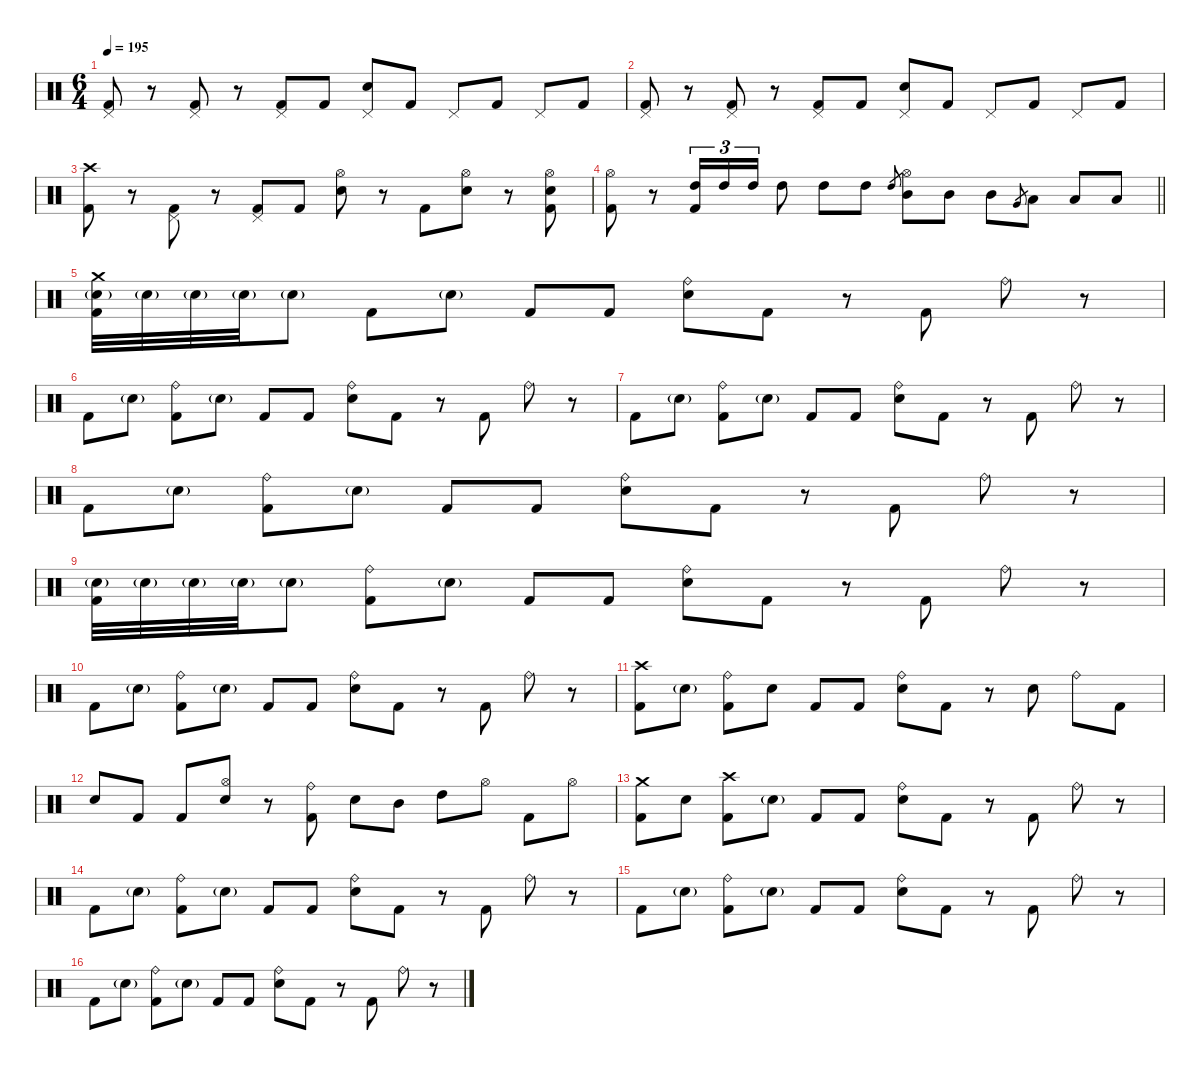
\defaultSystemsLayout 4
\hideDynamics
\bracketExtendMode nobrackets
\singleTrackTrackNamePolicy hidden
\multiTrackTrackNamePolicy hidden
\firstSystemTrackNameMode fullname
\firstSystemTrackNameOrientation horizontal
\otherSystemsTrackNameOrientation horizontal
\track ("Drums" "drm.") {instrument percussion}
\staff {score}
\articulation defaults
\ts (6 4)
\tempo 195
\clef neutral
\ks c
("Pedal Hi-Hat (hit)" "Kick (hit) 2").8{dy mf beam Up} r.8{beam Up} ("Pedal Hi-Hat (hit)" "Kick (hit) 2").8{beam Up} r.8{beam Up} ("Pedal Hi-Hat (hit)" "Kick (hit) 2").8{beam Up} "Kick (hit) 2".8{beam Up} ("Pedal Hi-Hat (hit)" "Snare (hit) 2").8{beam Up} "Kick (hit) 2".8{beam Up} "Pedal Hi-Hat (hit)".8{beam Up} "Kick (hit) 2".8{beam Up} "Pedal Hi-Hat (hit)".8{beam Up} "Kick (hit) 2".8{beam Up} |
("Pedal Hi-Hat (hit)" "Kick (hit) 2").8{beam Up} r.8{beam Up} ("Pedal Hi-Hat (hit)" "Kick (hit) 2").8{beam Up} r.8{beam Up} ("Pedal Hi-Hat (hit)" "Kick (hit) 2").8{beam Up} "Kick (hit) 2".8{beam Up} ("Pedal Hi-Hat (hit)" "Snare (hit) 2").8{beam Up} "Kick (hit) 2".8{beam Up} "Pedal Hi-Hat (hit)".8{beam Up} "Kick (hit) 2".8{beam Up} "Pedal Hi-Hat (hit)".8{beam Up} "Kick (hit) 2".8{beam Up} |
("Crash high (hit)" "Kick (hit) 2").8{beam Down} r.8{beam Down} ("Pedal Hi-Hat (hit)" "Kick (hit) 2").8{beam Down} r.8{beam Down} ("Pedal Hi-Hat (hit)" "Kick (hit) 2").8{beam Up} "Kick (hit) 2".8{beam Up} ("Hi-Hat (open)" "Snare (hit) 2").8{beam Down} r.8{beam Down} "Kick (hit) 2".8{beam Down} ("Hi-Hat (open)" "Snare (hit) 2").8{beam Down} r.8{beam Down} ("Hi-Hat (open)" "Snare (hit) 2" "Kick (hit) 2").8{beam Down} |
\barLineRight lightlight
("Hi-Hat (open)" "Kick (hit) 2").8{beam Down} r.8{beam Down} ("High Tom (hit)" "Kick (hit) 2").16{tu (3 2) beam Up} "High Tom (hit)".16{tu (3 2) beam Up} "High Tom (hit)".16{tu (3 2) beam Up} "High Tom (hit)".8{beam Down} "High Tom (hit)".8{beam Down} "High Tom (hit)".8{beam Down} "High Tom (hit)".8{gr beam Up} ("Hi-Hat (open)" "Mid Tom (hit)").8{beam Down} "Mid Tom (hit)".8{beam Down} "Mid Tom (hit)".8{beam Down} "Very Low Tom (hit)".8{gr beam Up} "Low Tom (hit)".8{beam Up} "Low Tom (hit)".8{beam Up} "Low Tom (hit)".8{beam Up} |
("Crash medium (hit)" "Snare (hit) 2"{g} "Kick (hit) 2").32{beam Down} "Snare (hit) 2"{g}.32{beam Down} "Snare (hit) 2"{g}.32{beam Down} "Snare (hit) 2"{g}.32{beam Down} "Snare (hit) 2"{g}.8{beam Down} "Kick (hit) 2".8{beam Down} "Snare (hit) 2"{g}.8{beam Up} "Kick (hit) 2".8{beam Up} "Kick (hit) 2".8{beam Up} ("Ride (bell)" "Snare (hit) 2").8{beam Down} "Kick (hit) 2".8{beam Down} r.8{beam Down} "Kick (hit) 2".8{beam Down} "Ride (bell)".8{beam Down} r.8{beam Down} |
"Kick (hit) 2".8{beam Down} "Snare (hit) 2"{g}.8{beam Down} ("Ride (bell)" "Kick (hit) 2").8{beam Down} "Snare (hit) 2"{g}.8{beam Up} "Kick (hit) 2".8{beam Up} "Kick (hit) 2".8{beam Up} ("Ride (bell)" "Snare (hit) 2").8{beam Down} "Kick (hit) 2".8{beam Down} r.8{beam Down} "Kick (hit) 2".8{beam Down} "Ride (bell)".8{beam Down} r.8{beam Down} |
"Kick (hit) 2".8{beam Down} "Snare (hit) 2"{g}.8{beam Down} ("Ride (bell)" "Kick (hit) 2").8{beam Down} "Snare (hit) 2"{g}.8{beam Up} "Kick (hit) 2".8{beam Up} "Kick (hit) 2".8{beam Up} ("Ride (bell)" "Snare (hit) 2").8{beam Down} "Kick (hit) 2".8{beam Down} r.8{beam Down} "Kick (hit) 2".8{beam Down} "Ride (bell)".8{beam Down} r.8{beam Down} |
"Kick (hit) 2".8{beam Down} "Snare (hit) 2"{g}.8{beam Down} ("Ride (bell)" "Kick (hit) 2").8{beam Down} "Snare (hit) 2"{g}.8{beam Up} "Kick (hit) 2".8{beam Up} "Kick (hit) 2".8{beam Up} ("Ride (bell)" "Snare (hit) 2").8{beam Down} "Kick (hit) 2".8{beam Down} r.8{beam Down} "Kick (hit) 2".8{beam Down} "Ride (bell)".8{beam Down} r.8{beam Down} |
("Snare (hit) 2"{g} "Kick (hit) 2").32{beam Down} "Snare (hit) 2"{g}.32{beam Down} "Snare (hit) 2"{g}.32{beam Down} "Snare (hit) 2"{g}.32{beam Down} "Snare (hit) 2"{g}.8{beam Down} ("Ride (bell)" "Kick (hit) 2").8{beam Down} "Snare (hit) 2"{g}.8{beam Up} "Kick (hit) 2".8{beam Up} "Kick (hit) 2".8{beam Up} ("Ride (bell)" "Snare (hit) 2").8{beam Down} "Kick (hit) 2".8{beam Down} r.8{beam Down} "Kick (hit) 2".8{beam Down} "Ride (bell)".8{beam Down} r.8{beam Down} |
"Kick (hit) 2".8{beam Down} "Snare (hit) 2"{g}.8{beam Down} ("Ride (bell)" "Kick (hit) 2").8{beam Down} "Snare (hit) 2"{g}.8{beam Up} "Kick (hit) 2".8{beam Up} "Kick (hit) 2".8{beam Up} ("Ride (bell)" "Snare (hit) 2").8{beam Down} "Kick (hit) 2".8{beam Down} r.8{beam Down} "Kick (hit) 2".8{beam Down} "Ride (bell)".8{beam Down} r.8{beam Down} |
("Crash high (hit)" "Kick (hit) 2").8{beam Down} "Snare (hit) 2"{g}.8{beam Down} ("Ride (bell)" "Kick (hit) 2").8{beam Down} "Snare (hit) 2".8{beam Up} "Kick (hit) 2".8{beam Up} "Kick (hit) 2".8{beam Up} ("Ride (bell)" "Snare (hit) 2").8{beam Down} "Kick (hit) 2".8{beam Down} r.8{beam Down} "Snare (hit) 2".8{beam Down} "Ride (bell)".8{beam Down} "Kick (hit) 2".8{beam Down} |
"Snare (hit) 2".8{beam Up} "Kick (hit) 2".8{beam Up} "Kick (hit) 2".8{beam Up} ("Hi-Hat (open)" "Snare (hit) 2").8{beam Down} r.8{beam Down} ("Ride (bell)" "Kick (hit) 2").8{beam Down} "Snare (hit) 2".8{beam Down} "Mid Tom (hit)".8{beam Down} "High Tom (hit)".8{beam Down} "Hi-Hat (open)".8{beam Down} "Kick (hit) 2".8{beam Down} "Hi-Hat (open)".8{beam Down} |
("Crash medium (hit)" "Kick (hit) 2").8{beam Down} "Snare (hit) 2".8{beam Down} ("Crash high (hit)" "Kick (hit) 2").8{beam Down} "Snare (hit) 2"{g}.8{beam Up} "Kick (hit) 2".8{beam Up} "Kick (hit) 2".8{beam Up} ("Ride (bell)" "Snare (hit) 2").8{beam Down} "Kick (hit) 2".8{beam Down} r.8{beam Down} "Kick (hit) 2".8{beam Down} "Ride (bell)".8{beam Down} r.8{beam Down} |
"Kick (hit) 2".8{beam Down} "Snare (hit) 2"{g}.8{beam Down} ("Ride (bell)" "Kick (hit) 2").8{beam Down} "Snare (hit) 2"{g}.8{beam Up} "Kick (hit) 2".8{beam Up} "Kick (hit) 2".8{beam Up} ("Ride (bell)" "Snare (hit) 2").8{beam Down} "Kick (hit) 2".8{beam Down} r.8{beam Down} "Kick (hit) 2".8{beam Down} "Ride (bell)".8{beam Down} r.8{beam Down} |
"Kick (hit) 2".8{beam Down} "Snare (hit) 2"{g}.8{beam Down} ("Ride (bell)" "Kick (hit) 2").8{beam Down} "Snare (hit) 2"{g}.8{beam Up} "Kick (hit) 2".8{beam Up} "Kick (hit) 2".8{beam Up} ("Ride (bell)" "Snare (hit) 2").8{beam Down} "Kick (hit) 2".8{beam Down} r.8{beam Down} "Kick (hit) 2".8{beam Down} "Ride (bell)".8{beam Down} r.8{beam Down} |
"Kick (hit) 2".8{beam Down} "Snare (hit) 2"{g}.8{beam Down} ("Ride (bell)" "Kick (hit) 2").8{beam Down} "Snare (hit) 2"{g}.8{beam Up} "Kick (hit) 2".8{beam Up} "Kick (hit) 2".8{beam Up} ("Ride (bell)" "Snare (hit) 2").8{beam Down} "Kick (hit) 2".8{beam Down} r.8{beam Down} "Kick (hit) 2".8{beam Down} "Ride (bell)".8{beam Down} r.8{beam Down}
